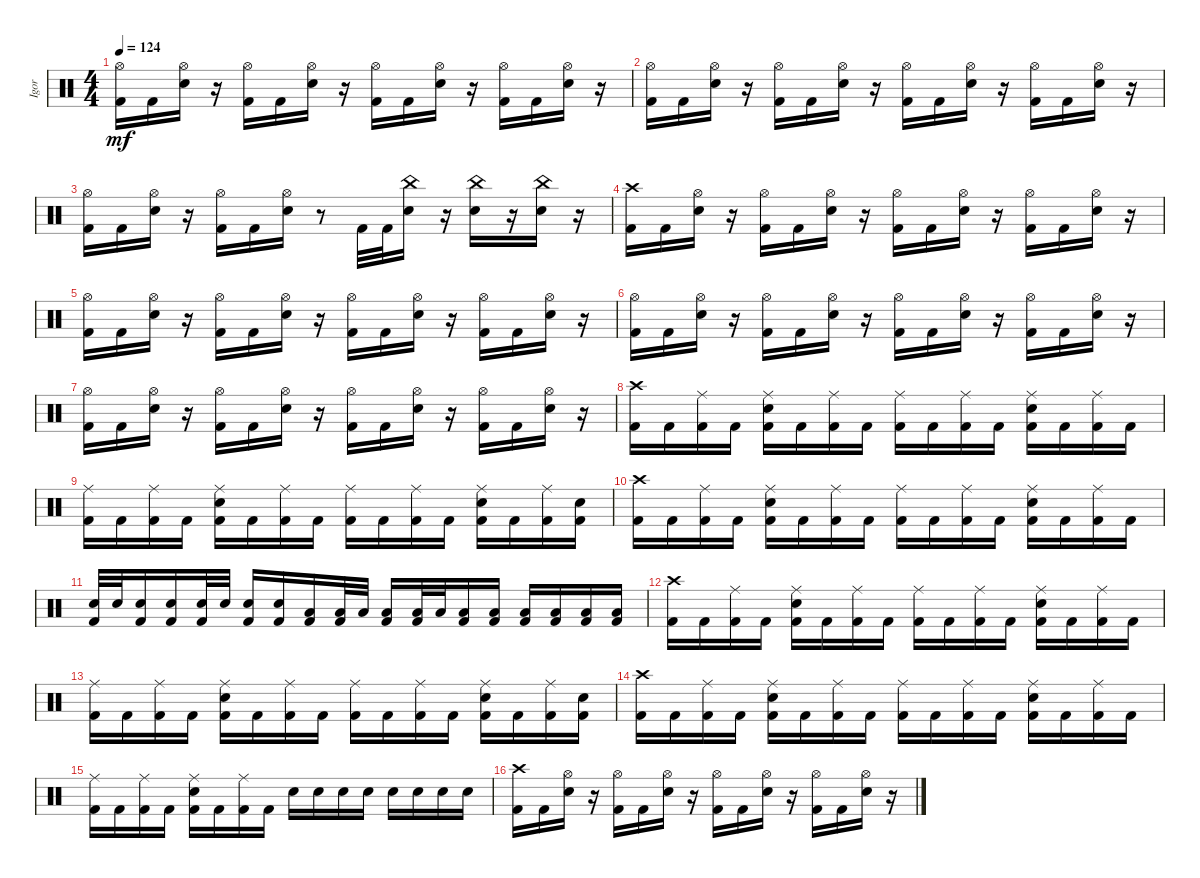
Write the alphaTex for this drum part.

\track ("Igor" "Igor") {instrument percussion}
\staff {score}
\articulation defaults
\ts (4 4)
\tempo 124
\clef neutral
\ks c
("Kick (hit) 2" "Hi-Hat (open)").16{dy mf} "Kick (hit) 2".16 ("Snare (hit) 2" "Hi-Hat (open)").16 r.16 ("Hi-Hat (open)" "Kick (hit) 2").16 "Kick (hit) 2".16 ("Snare (hit) 2" "Hi-Hat (open)").16 r.16 ("Kick (hit) 2" "Hi-Hat (open)").16 "Kick (hit) 2".16 ("Snare (hit) 2" "Hi-Hat (open)").16 r.16 ("Hi-Hat (open)" "Kick (hit) 2").16 "Kick (hit) 2".16 ("Snare (hit) 2" "Hi-Hat (open)").16 r.16 |
("Kick (hit) 2" "Hi-Hat (open)").16 "Kick (hit) 2".16 ("Snare (hit) 2" "Hi-Hat (open)").16 r.16 ("Hi-Hat (open)" "Kick (hit) 2").16 "Kick (hit) 2".16 ("Snare (hit) 2" "Hi-Hat (open)").16 r.16 ("Kick (hit) 2" "Hi-Hat (open)").16 "Kick (hit) 2".16 ("Snare (hit) 2" "Hi-Hat (open)").16 r.16 ("Hi-Hat (open)" "Kick (hit) 2").16 "Kick (hit) 2".16 ("Snare (hit) 2" "Hi-Hat (open)").16 r.16 |
("Kick (hit) 2" "Hi-Hat (open)").16 "Kick (hit) 2".16 ("Snare (hit) 2" "Hi-Hat (open)").16 r.16 ("Hi-Hat (open)" "Kick (hit) 2").16 "Kick (hit) 2".16 ("Snare (hit) 2" "Hi-Hat (open)").16 r.8 "Kick (hit) 2".32 "Kick (hit) 2".32 ("Snare (hit) 2" "China (hit)").16 r.16 ("Snare (hit) 2" "China (hit)").16 r.16 ("Snare (hit) 2" "China (hit)").16 r.16 |
("Kick (hit) 2" "Crash high (hit)").16 "Kick (hit) 2".16 ("Snare (hit) 2" "Hi-Hat (open)").16 r.16 ("Hi-Hat (open)" "Kick (hit) 2").16 "Kick (hit) 2".16 ("Snare (hit) 2" "Hi-Hat (open)").16 r.16 ("Kick (hit) 2" "Hi-Hat (open)").16 "Kick (hit) 2".16 ("Snare (hit) 2" "Hi-Hat (open)").16 r.16 ("Hi-Hat (open)" "Kick (hit) 2").16 "Kick (hit) 2".16 ("Snare (hit) 2" "Hi-Hat (open)").16 r.16 |
("Kick (hit) 2" "Hi-Hat (open)").16 "Kick (hit) 2".16 ("Snare (hit) 2" "Hi-Hat (open)").16 r.16 ("Hi-Hat (open)" "Kick (hit) 2").16 "Kick (hit) 2".16 ("Snare (hit) 2" "Hi-Hat (open)").16 r.16 ("Kick (hit) 2" "Hi-Hat (open)").16 "Kick (hit) 2".16 ("Snare (hit) 2" "Hi-Hat (open)").16 r.16 ("Hi-Hat (open)" "Kick (hit) 2").16 "Kick (hit) 2".16 ("Snare (hit) 2" "Hi-Hat (open)").16 r.16 |
("Kick (hit) 2" "Hi-Hat (open)").16 "Kick (hit) 2".16 ("Snare (hit) 2" "Hi-Hat (open)").16 r.16 ("Hi-Hat (open)" "Kick (hit) 2").16 "Kick (hit) 2".16 ("Snare (hit) 2" "Hi-Hat (open)").16 r.16 ("Kick (hit) 2" "Hi-Hat (open)").16 "Kick (hit) 2".16 ("Snare (hit) 2" "Hi-Hat (open)").16 r.16 ("Hi-Hat (open)" "Kick (hit) 2").16 "Kick (hit) 2".16 ("Snare (hit) 2" "Hi-Hat (open)").16 r.16 |
("Kick (hit) 2" "Hi-Hat (open)").16 "Kick (hit) 2".16 ("Snare (hit) 2" "Hi-Hat (open)").16 r.16 ("Hi-Hat (open)" "Kick (hit) 2").16 "Kick (hit) 2".16 ("Snare (hit) 2" "Hi-Hat (open)").16 r.16 ("Kick (hit) 2" "Hi-Hat (open)").16 "Kick (hit) 2".16 ("Snare (hit) 2" "Hi-Hat (open)").16 r.16 ("Hi-Hat (open)" "Kick (hit) 2").16 "Kick (hit) 2".16 ("Snare (hit) 2" "Hi-Hat (open)").16 r.16 |
("Kick (hit) 2" "Crash high (hit)").16 "Kick (hit) 2".16 ("Kick (hit) 2" "Ride (middle)").16 "Kick (hit) 2".16 ("Kick (hit) 2" "Ride (middle)" "Snare (hit) 2").16 "Kick (hit) 2".16 ("Kick (hit) 2" "Ride (middle)").16 "Kick (hit) 2".16 ("Kick (hit) 2" "Ride (middle)").16 "Kick (hit) 2".16 ("Kick (hit) 2" "Ride (middle)").16 "Kick (hit) 2".16 ("Kick (hit) 2" "Ride (middle)" "Snare (hit) 2").16 "Kick (hit) 2".16 ("Kick (hit) 2" "Ride (middle)").16 "Kick (hit) 2".16 |
("Kick (hit) 2" "Ride (middle)").16 "Kick (hit) 2".16 ("Kick (hit) 2" "Ride (middle)").16 "Kick (hit) 2".16 ("Kick (hit) 2" "Ride (middle)" "Snare (hit) 2").16 "Kick (hit) 2".16 ("Kick (hit) 2" "Ride (middle)").16 "Kick (hit) 2".16 ("Kick (hit) 2" "Ride (middle)").16 "Kick (hit) 2".16 ("Kick (hit) 2" "Ride (middle)").16 "Kick (hit) 2".16 ("Kick (hit) 2" "Ride (middle)" "Snare (hit) 2").16 "Kick (hit) 2".16 ("Kick (hit) 2" "Ride (middle)").16 ("Kick (hit) 2" "Snare (hit) 2").16 |
("Kick (hit) 2" "Crash high (hit)").16 "Kick (hit) 2".16 ("Kick (hit) 2" "Ride (middle)").16 "Kick (hit) 2".16 ("Kick (hit) 2" "Ride (middle)" "Snare (hit) 2").16 "Kick (hit) 2".16 ("Kick (hit) 2" "Ride (middle)").16 "Kick (hit) 2".16 ("Kick (hit) 2" "Ride (middle)").16 "Kick (hit) 2".16 ("Kick (hit) 2" "Ride (middle)").16 "Kick (hit) 2".16 ("Kick (hit) 2" "Ride (middle)" "Snare (hit) 2").16 "Kick (hit) 2".16 ("Kick (hit) 2" "Ride (middle)").16 "Kick (hit) 2".16 |
("Kick (hit) 2" "Snare (hit) 2").32 "Snare (hit) 2".32 ("Kick (hit) 2" "Snare (hit) 2").16 ("Kick (hit) 2" "Snare (hit) 2").16 ("Kick (hit) 2" "Snare (hit) 2").32 "Snare (hit) 2".32 ("Kick (hit) 2" "Snare (hit) 2").16 ("Kick (hit) 2" "Snare (hit) 2").16 ("Kick (hit) 2" "Low Tom (hit)").16 ("Kick (hit) 2" "Low Tom (hit)").32 "Low Tom (hit)".32 ("Kick (hit) 2" "Low Tom (hit)").16 ("Kick (hit) 2" "Low Tom (hit)").32 "Low Tom (hit)".32 ("Kick (hit) 2" "Low Floor Tom (hit)").16 ("Kick (hit) 2" "Low Floor Tom (hit)").16 ("Kick (hit) 2" "Low Floor Tom (hit)").16 ("Kick (hit) 2" "Low Floor Tom (hit)").16 ("Kick (hit) 2" "Low Floor Tom (hit)").16 ("Kick (hit) 2" "Low Floor Tom (hit)").16 |
("Kick (hit) 2" "Crash high (hit)").16 "Kick (hit) 2".16 ("Kick (hit) 2" "Ride (middle)").16 "Kick (hit) 2".16 ("Kick (hit) 2" "Ride (middle)" "Snare (hit) 2").16 "Kick (hit) 2".16 ("Kick (hit) 2" "Ride (middle)").16 "Kick (hit) 2".16 ("Kick (hit) 2" "Ride (middle)").16 "Kick (hit) 2".16 ("Kick (hit) 2" "Ride (middle)").16 "Kick (hit) 2".16 ("Kick (hit) 2" "Ride (middle)" "Snare (hit) 2").16 "Kick (hit) 2".16 ("Kick (hit) 2" "Ride (middle)").16 "Kick (hit) 2".16 |
("Kick (hit) 2" "Ride (middle)").16 "Kick (hit) 2".16 ("Kick (hit) 2" "Ride (middle)").16 "Kick (hit) 2".16 ("Kick (hit) 2" "Ride (middle)" "Snare (hit) 2").16 "Kick (hit) 2".16 ("Kick (hit) 2" "Ride (middle)").16 "Kick (hit) 2".16 ("Kick (hit) 2" "Ride (middle)").16 "Kick (hit) 2".16 ("Kick (hit) 2" "Ride (middle)").16 "Kick (hit) 2".16 ("Kick (hit) 2" "Ride (middle)" "Snare (hit) 2").16 "Kick (hit) 2".16 ("Kick (hit) 2" "Ride (middle)").16 ("Kick (hit) 2" "Snare (hit) 2").16 |
("Kick (hit) 2" "Crash high (hit)").16 "Kick (hit) 2".16 ("Kick (hit) 2" "Ride (middle)").16 "Kick (hit) 2".16 ("Kick (hit) 2" "Ride (middle)" "Snare (hit) 2").16 "Kick (hit) 2".16 ("Kick (hit) 2" "Ride (middle)").16 "Kick (hit) 2".16 ("Kick (hit) 2" "Ride (middle)").16 "Kick (hit) 2".16 ("Kick (hit) 2" "Ride (middle)").16 "Kick (hit) 2".16 ("Kick (hit) 2" "Ride (middle)" "Snare (hit) 2").16 "Kick (hit) 2".16 ("Kick (hit) 2" "Ride (middle)").16 "Kick (hit) 2".16 |
("Kick (hit) 2" "Ride (middle)").16 "Kick (hit) 2".16 ("Kick (hit) 2" "Ride (middle)").16 "Kick (hit) 2".16 ("Kick (hit) 2" "Snare (hit) 2" "Ride (middle)").16 "Kick (hit) 2".16 ("Kick (hit) 2" "Ride (middle)").16 "Kick (hit) 2".16 "Snare (hit) 2".16 "Snare (hit) 2".16 "Snare (hit) 2".16 "Snare (hit) 2".16 "Snare (hit) 2".16 "Snare (hit) 2".16 "Snare (hit) 2".16 "Snare (hit) 2".16 |
("Kick (hit) 2" "Crash high (hit)").16 "Kick (hit) 2".16 ("Snare (hit) 2" "Hi-Hat (open)").16 r.16 ("Hi-Hat (open)" "Kick (hit) 2").16 "Kick (hit) 2".16 ("Snare (hit) 2" "Hi-Hat (open)").16 r.16 ("Kick (hit) 2" "Hi-Hat (open)").16 "Kick (hit) 2".16 ("Snare (hit) 2" "Hi-Hat (open)").16 r.16 ("Hi-Hat (open)" "Kick (hit) 2").16 "Kick (hit) 2".16 ("Snare (hit) 2" "Hi-Hat (open)").16 r.16
